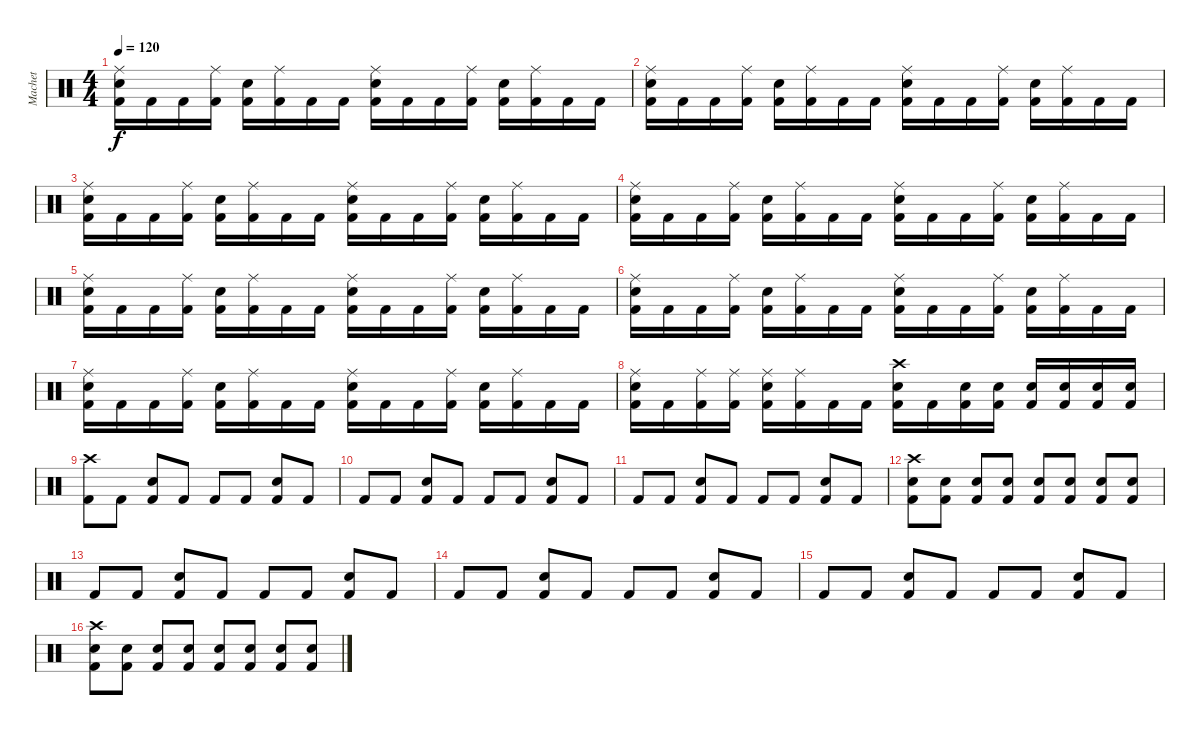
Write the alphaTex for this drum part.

\track ("Machet" "Machet") {instrument percussion}
\staff {score}
\articulation defaults
\ts (4 4)
\tempo 120
\clef neutral
\ks c
("Ride (middle)" "Snare (hit) 2" "Kick (hit) 2").16{dy f} "Kick (hit) 2".16 "Kick (hit) 2".16 ("Ride (middle)" "Kick (hit) 2").16 ("Snare (hit) 2" "Kick (hit) 2").16 ("Ride (middle)" "Kick (hit) 2").16 "Kick (hit) 2".16 "Kick (hit) 2".16 ("Ride (middle)" "Snare (hit) 2" "Kick (hit) 2").16 "Kick (hit) 2".16 "Kick (hit) 2".16 ("Ride (middle)" "Kick (hit) 2").16 ("Snare (hit) 2" "Kick (hit) 2").16 ("Ride (middle)" "Kick (hit) 2").16 "Kick (hit) 2".16 "Kick (hit) 2".16 |
("Ride (middle)" "Snare (hit) 2" "Kick (hit) 2").16 "Kick (hit) 2".16 "Kick (hit) 2".16 ("Ride (middle)" "Kick (hit) 2").16 ("Snare (hit) 2" "Kick (hit) 2").16 ("Ride (middle)" "Kick (hit) 2").16 "Kick (hit) 2".16 "Kick (hit) 2".16 ("Ride (middle)" "Snare (hit) 2" "Kick (hit) 2").16 "Kick (hit) 2".16 "Kick (hit) 2".16 ("Ride (middle)" "Kick (hit) 2").16 ("Snare (hit) 2" "Kick (hit) 2").16 ("Ride (middle)" "Kick (hit) 2").16 "Kick (hit) 2".16 "Kick (hit) 2".16 |
("Ride (middle)" "Snare (hit) 2" "Kick (hit) 2").16 "Kick (hit) 2".16 "Kick (hit) 2".16 ("Ride (middle)" "Kick (hit) 2").16 ("Snare (hit) 2" "Kick (hit) 2").16 ("Ride (middle)" "Kick (hit) 2").16 "Kick (hit) 2".16 "Kick (hit) 2".16 ("Ride (middle)" "Snare (hit) 2" "Kick (hit) 2").16 "Kick (hit) 2".16 "Kick (hit) 2".16 ("Ride (middle)" "Kick (hit) 2").16 ("Snare (hit) 2" "Kick (hit) 2").16 ("Ride (middle)" "Kick (hit) 2").16 "Kick (hit) 2".16 "Kick (hit) 2".16 |
("Ride (middle)" "Snare (hit) 2" "Kick (hit) 2").16 "Kick (hit) 2".16 "Kick (hit) 2".16 ("Ride (middle)" "Kick (hit) 2").16 ("Snare (hit) 2" "Kick (hit) 2").16 ("Ride (middle)" "Kick (hit) 2").16 "Kick (hit) 2".16 "Kick (hit) 2".16 ("Ride (middle)" "Snare (hit) 2" "Kick (hit) 2").16 "Kick (hit) 2".16 "Kick (hit) 2".16 ("Ride (middle)" "Kick (hit) 2").16 ("Snare (hit) 2" "Kick (hit) 2").16 ("Ride (middle)" "Kick (hit) 2").16 "Kick (hit) 2".16 "Kick (hit) 2".16 |
("Ride (middle)" "Snare (hit) 2" "Kick (hit) 2").16 "Kick (hit) 2".16 "Kick (hit) 2".16 ("Ride (middle)" "Kick (hit) 2").16 ("Snare (hit) 2" "Kick (hit) 2").16 ("Ride (middle)" "Kick (hit) 2").16 "Kick (hit) 2".16 "Kick (hit) 2".16 ("Ride (middle)" "Snare (hit) 2" "Kick (hit) 2").16 "Kick (hit) 2".16 "Kick (hit) 2".16 ("Ride (middle)" "Kick (hit) 2").16 ("Snare (hit) 2" "Kick (hit) 2").16 ("Ride (middle)" "Kick (hit) 2").16 "Kick (hit) 2".16 "Kick (hit) 2".16 |
("Ride (middle)" "Snare (hit) 2" "Kick (hit) 2").16 "Kick (hit) 2".16 "Kick (hit) 2".16 ("Ride (middle)" "Kick (hit) 2").16 ("Snare (hit) 2" "Kick (hit) 2").16 ("Ride (middle)" "Kick (hit) 2").16 "Kick (hit) 2".16 "Kick (hit) 2".16 ("Ride (middle)" "Snare (hit) 2" "Kick (hit) 2").16 "Kick (hit) 2".16 "Kick (hit) 2".16 ("Ride (middle)" "Kick (hit) 2").16 ("Snare (hit) 2" "Kick (hit) 2").16 ("Ride (middle)" "Kick (hit) 2").16 "Kick (hit) 2".16 "Kick (hit) 2".16 |
("Ride (middle)" "Snare (hit) 2" "Kick (hit) 2").16 "Kick (hit) 2".16 "Kick (hit) 2".16 ("Ride (middle)" "Kick (hit) 2").16 ("Snare (hit) 2" "Kick (hit) 2").16 ("Ride (middle)" "Kick (hit) 2").16 "Kick (hit) 2".16 "Kick (hit) 2".16 ("Ride (middle)" "Snare (hit) 2" "Kick (hit) 2").16 "Kick (hit) 2".16 "Kick (hit) 2".16 ("Ride (middle)" "Kick (hit) 2").16 ("Snare (hit) 2" "Kick (hit) 2").16 ("Ride (middle)" "Kick (hit) 2").16 "Kick (hit) 2".16 "Kick (hit) 2".16 |
("Ride (middle)" "Snare (hit) 2" "Kick (hit) 2").16 "Kick (hit) 2".16 ("Ride (middle)" "Kick (hit) 2").16 ("Ride (middle)" "Kick (hit) 2").16 ("Ride (middle)" "Snare (hit) 2" "Kick (hit) 2").16 ("Ride (middle)" "Kick (hit) 2").16 "Kick (hit) 2".16 "Kick (hit) 2".16 ("Crash high (hit)" "Snare (hit) 2" "Kick (hit) 2").16 "Kick (hit) 2".16 ("Snare (hit) 2" "Kick (hit) 2").16 ("Snare (hit) 2" "Kick (hit) 2").16 ("Snare (hit) 2" "Kick (hit) 2").16 ("Snare (hit) 2" "Kick (hit) 2").16 ("Snare (hit) 2" "Kick (hit) 2").16 ("Snare (hit) 2" "Kick (hit) 2").16 |
("Crash high (hit)" "Kick (hit) 2").8 "Kick (hit) 2".8 ("Snare (hit) 2" "Kick (hit) 2").8 "Kick (hit) 2".8 "Kick (hit) 2".8 "Kick (hit) 2".8 ("Snare (hit) 2" "Kick (hit) 2").8 "Kick (hit) 2".8 |
"Kick (hit) 2".8 "Kick (hit) 2".8 ("Snare (hit) 2" "Kick (hit) 2").8 "Kick (hit) 2".8 "Kick (hit) 2".8 "Kick (hit) 2".8 ("Snare (hit) 2" "Kick (hit) 2").8 "Kick (hit) 2".8 |
"Kick (hit) 2".8 "Kick (hit) 2".8 ("Snare (hit) 2" "Kick (hit) 2").8 "Kick (hit) 2".8 "Kick (hit) 2".8 "Kick (hit) 2".8 ("Snare (hit) 2" "Kick (hit) 2").8 "Kick (hit) 2".8 |
("Crash high (hit)" "Snare (hit) 2" "Kick (hit) 2").8 ("Snare (hit) 2" "Kick (hit) 2").8 ("Snare (hit) 2" "Kick (hit) 2").8 ("Snare (hit) 2" "Kick (hit) 2").8 ("Snare (hit) 2" "Kick (hit) 2").8 ("Snare (hit) 2" "Kick (hit) 2").8 ("Snare (hit) 2" "Kick (hit) 2").8 ("Snare (hit) 2" "Kick (hit) 2").8 |
"Kick (hit) 2".8 "Kick (hit) 2".8 ("Snare (hit) 2" "Kick (hit) 2").8 "Kick (hit) 2".8 "Kick (hit) 2".8 "Kick (hit) 2".8 ("Snare (hit) 2" "Kick (hit) 2").8 "Kick (hit) 2".8 |
"Kick (hit) 2".8 "Kick (hit) 2".8 ("Snare (hit) 2" "Kick (hit) 2").8 "Kick (hit) 2".8 "Kick (hit) 2".8 "Kick (hit) 2".8 ("Snare (hit) 2" "Kick (hit) 2").8 "Kick (hit) 2".8 |
"Kick (hit) 2".8 "Kick (hit) 2".8 ("Snare (hit) 2" "Kick (hit) 2").8 "Kick (hit) 2".8 "Kick (hit) 2".8 "Kick (hit) 2".8 ("Snare (hit) 2" "Kick (hit) 2").8 "Kick (hit) 2".8 |
("Crash high (hit)" "Snare (hit) 2" "Kick (hit) 2").8 ("Snare (hit) 2" "Kick (hit) 2").8 ("Snare (hit) 2" "Kick (hit) 2").8 ("Snare (hit) 2" "Kick (hit) 2").8 ("Snare (hit) 2" "Kick (hit) 2").8 ("Snare (hit) 2" "Kick (hit) 2").8 ("Snare (hit) 2" "Kick (hit) 2").8 ("Snare (hit) 2" "Kick (hit) 2").8
